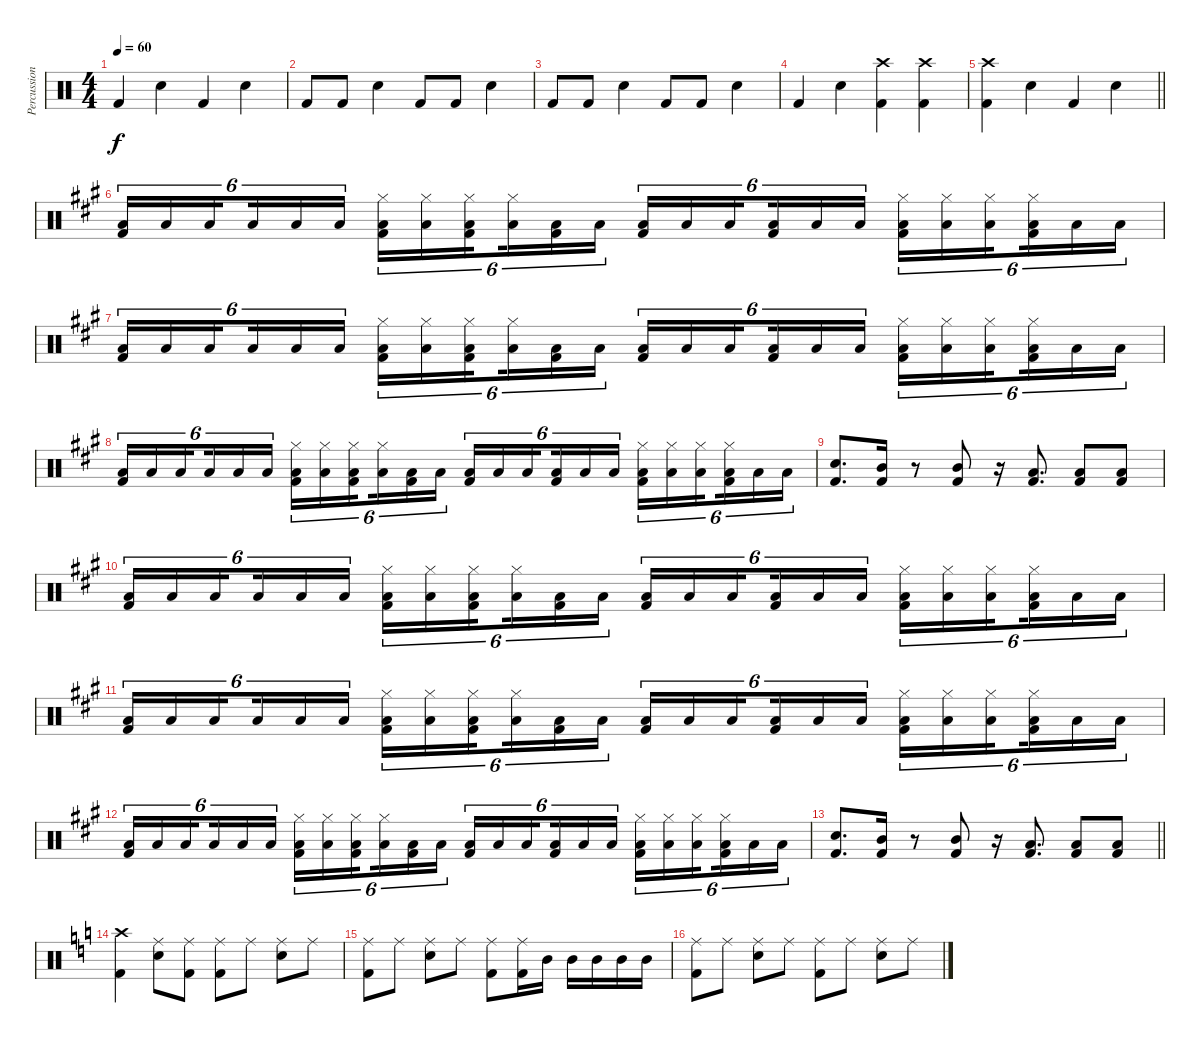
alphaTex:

\track ("Percussion" "Percussion") {instrument percussion}
\staff {score}
\articulation defaults
\ts (4 4)
\tempo 60
\clef neutral
\ks c "Kick (hit) 2".4{dy f} "Snare (hit) 2".4 "Kick (hit) 2".4 "Snare (hit) 2".4
|
"Kick (hit) 2".8 "Kick (hit) 2".8 "Snare (hit) 2".4 "Kick (hit) 2".8 "Kick (hit) 2".8 "Snare (hit) 2".4 |
"Kick (hit) 2".8 "Kick (hit) 2".8 "Snare (hit) 2".4 "Kick (hit) 2".8 "Kick (hit) 2".8 "Snare (hit) 2".4 |
"Kick (hit) 2".4 "Snare (hit) 2".4 ("Crash high (hit)" "Kick (hit) 2").4 ("Crash high (hit)" "Kick (hit) 2").4 |
\barLineRight lightlight
("Crash high (hit)" "Kick (hit) 2").4 "Snare (hit) 2".4 "Kick (hit) 2".4 "Snare (hit) 2".4 |
\ks a
("Low Tom (hit)" "Kick (hit) 2").16{tu (6 4)} "Low Tom (hit)".16{tu (6 4)} "Low Tom (hit)".16{tu (6 4) beam splitsecondary} "Low Tom (hit)".16{tu (6 4)} "Low Tom (hit)".16{tu (6 4)} "Low Tom (hit)".16{tu (6 4)} ("Hi-Hat (closed)" "Low Tom (hit)" "Kick (hit) 2").16{tu (6 4)} ("Hi-Hat (closed)" "Low Tom (hit)").16{tu (6 4)} ("Hi-Hat (closed)" "Low Tom (hit)" "Kick (hit) 2").16{tu (6 4) beam splitsecondary} ("Hi-Hat (closed)" "Low Tom (hit)").16{tu (6 4)} ("Low Tom (hit)" "Kick (hit) 2").16{tu (6 4)} "Low Tom (hit)".16{tu (6 4)} ("Low Tom (hit)" "Kick (hit) 2").16{tu (6 4)} "Low Tom (hit)".16{tu (6 4)} "Low Tom (hit)".16{tu (6 4) beam splitsecondary} ("Low Tom (hit)" "Kick (hit) 2").16{tu (6 4)} "Low Tom (hit)".16{tu (6 4)} "Low Tom (hit)".16{tu (6 4)} ("Hi-Hat (closed)" "Low Tom (hit)" "Kick (hit) 2").16{tu (6 4)} ("Hi-Hat (closed)" "Low Tom (hit)").16{tu (6 4)} ("Hi-Hat (closed)" "Low Tom (hit)").16{tu (6 4) beam splitsecondary} ("Hi-Hat (closed)" "Low Tom (hit)" "Kick (hit) 2").16{tu (6 4)} "Low Tom (hit)".16{tu (6 4)} "Low Tom (hit)".16{tu (6 4)} |
("Low Tom (hit)" "Kick (hit) 2").16{tu (6 4)} "Low Tom (hit)".16{tu (6 4)} "Low Tom (hit)".16{tu (6 4) beam splitsecondary} "Low Tom (hit)".16{tu (6 4)} "Low Tom (hit)".16{tu (6 4)} "Low Tom (hit)".16{tu (6 4)} ("Hi-Hat (closed)" "Low Tom (hit)" "Kick (hit) 2").16{tu (6 4)} ("Hi-Hat (closed)" "Low Tom (hit)").16{tu (6 4)} ("Hi-Hat (closed)" "Low Tom (hit)" "Kick (hit) 2").16{tu (6 4) beam splitsecondary} ("Hi-Hat (closed)" "Low Tom (hit)").16{tu (6 4)} ("Low Tom (hit)" "Kick (hit) 2").16{tu (6 4)} "Low Tom (hit)".16{tu (6 4)} ("Low Tom (hit)" "Kick (hit) 2").16{tu (6 4)} "Low Tom (hit)".16{tu (6 4)} "Low Tom (hit)".16{tu (6 4) beam splitsecondary} ("Low Tom (hit)" "Kick (hit) 2").16{tu (6 4)} "Low Tom (hit)".16{tu (6 4)} "Low Tom (hit)".16{tu (6 4)} ("Hi-Hat (closed)" "Low Tom (hit)" "Kick (hit) 2").16{tu (6 4)} ("Hi-Hat (closed)" "Low Tom (hit)").16{tu (6 4)} ("Hi-Hat (closed)" "Low Tom (hit)").16{tu (6 4) beam splitsecondary} ("Hi-Hat (closed)" "Low Tom (hit)" "Kick (hit) 2").16{tu (6 4)} "Low Tom (hit)".16{tu (6 4)} "Low Tom (hit)".16{tu (6 4)} |
("Low Tom (hit)" "Kick (hit) 2").16{tu (6 4)} "Low Tom (hit)".16{tu (6 4)} "Low Tom (hit)".16{tu (6 4) beam splitsecondary} "Low Tom (hit)".16{tu (6 4)} "Low Tom (hit)".16{tu (6 4)} "Low Tom (hit)".16{tu (6 4)} ("Hi-Hat (closed)" "Low Tom (hit)" "Kick (hit) 2").16{tu (6 4)} ("Hi-Hat (closed)" "Low Tom (hit)").16{tu (6 4)} ("Hi-Hat (closed)" "Low Tom (hit)" "Kick (hit) 2").16{tu (6 4) beam splitsecondary} ("Hi-Hat (closed)" "Low Tom (hit)").16{tu (6 4)} ("Low Tom (hit)" "Kick (hit) 2").16{tu (6 4)} "Low Tom (hit)".16{tu (6 4)} ("Low Tom (hit)" "Kick (hit) 2").16{tu (6 4)} "Low Tom (hit)".16{tu (6 4)} "Low Tom (hit)".16{tu (6 4) beam splitsecondary} ("Low Tom (hit)" "Kick (hit) 2").16{tu (6 4)} "Low Tom (hit)".16{tu (6 4)} "Low Tom (hit)".16{tu (6 4)} ("Hi-Hat (closed)" "Low Tom (hit)" "Kick (hit) 2").16{tu (6 4)} ("Hi-Hat (closed)" "Low Tom (hit)").16{tu (6 4)} ("Hi-Hat (closed)" "Low Tom (hit)").16{tu (6 4) beam splitsecondary} ("Hi-Hat (closed)" "Low Tom (hit)" "Kick (hit) 2").16{tu (6 4)} "Low Tom (hit)".16{tu (6 4)} "Low Tom (hit)".16{tu (6 4)} |
("Snare (hit) 2" "Kick (hit) 2").8{d} ("Mid Tom (hit)" "Kick (hit) 2").16 r.8 ("Mid Tom (hit)" "Kick (hit) 2").8 r.16 ("Low Floor Tom (hit)" "Kick (hit) 2").8{d} ("Low Floor Tom (hit)" "Kick (hit) 2").8 ("Low Floor Tom (hit)" "Kick (hit) 2").8 |
("Low Tom (hit)" "Kick (hit) 2").16{tu (6 4)} "Low Tom (hit)".16{tu (6 4)} "Low Tom (hit)".16{tu (6 4) beam splitsecondary} "Low Tom (hit)".16{tu (6 4)} "Low Tom (hit)".16{tu (6 4)} "Low Tom (hit)".16{tu (6 4)} ("Hi-Hat (closed)" "Low Tom (hit)" "Kick (hit) 2").16{tu (6 4)} ("Hi-Hat (closed)" "Low Tom (hit)").16{tu (6 4)} ("Hi-Hat (closed)" "Low Tom (hit)" "Kick (hit) 2").16{tu (6 4) beam splitsecondary} ("Hi-Hat (closed)" "Low Tom (hit)").16{tu (6 4)} ("Low Tom (hit)" "Kick (hit) 2").16{tu (6 4)} "Low Tom (hit)".16{tu (6 4)} ("Low Tom (hit)" "Kick (hit) 2").16{tu (6 4)} "Low Tom (hit)".16{tu (6 4)} "Low Tom (hit)".16{tu (6 4) beam splitsecondary} ("Low Tom (hit)" "Kick (hit) 2").16{tu (6 4)} "Low Tom (hit)".16{tu (6 4)} "Low Tom (hit)".16{tu (6 4)} ("Hi-Hat (closed)" "Low Tom (hit)" "Kick (hit) 2").16{tu (6 4)} ("Hi-Hat (closed)" "Low Tom (hit)").16{tu (6 4)} ("Hi-Hat (closed)" "Low Tom (hit)").16{tu (6 4) beam splitsecondary} ("Hi-Hat (closed)" "Low Tom (hit)" "Kick (hit) 2").16{tu (6 4)} "Low Tom (hit)".16{tu (6 4)} "Low Tom (hit)".16{tu (6 4)} |
("Low Tom (hit)" "Kick (hit) 2").16{tu (6 4)} "Low Tom (hit)".16{tu (6 4)} "Low Tom (hit)".16{tu (6 4) beam splitsecondary} "Low Tom (hit)".16{tu (6 4)} "Low Tom (hit)".16{tu (6 4)} "Low Tom (hit)".16{tu (6 4)} ("Hi-Hat (closed)" "Low Tom (hit)" "Kick (hit) 2").16{tu (6 4)} ("Hi-Hat (closed)" "Low Tom (hit)").16{tu (6 4)} ("Hi-Hat (closed)" "Low Tom (hit)" "Kick (hit) 2").16{tu (6 4) beam splitsecondary} ("Hi-Hat (closed)" "Low Tom (hit)").16{tu (6 4)} ("Low Tom (hit)" "Kick (hit) 2").16{tu (6 4)} "Low Tom (hit)".16{tu (6 4)} ("Low Tom (hit)" "Kick (hit) 2").16{tu (6 4)} "Low Tom (hit)".16{tu (6 4)} "Low Tom (hit)".16{tu (6 4) beam splitsecondary} ("Low Tom (hit)" "Kick (hit) 2").16{tu (6 4)} "Low Tom (hit)".16{tu (6 4)} "Low Tom (hit)".16{tu (6 4)} ("Hi-Hat (closed)" "Low Tom (hit)" "Kick (hit) 2").16{tu (6 4)} ("Hi-Hat (closed)" "Low Tom (hit)").16{tu (6 4)} ("Hi-Hat (closed)" "Low Tom (hit)").16{tu (6 4) beam splitsecondary} ("Hi-Hat (closed)" "Low Tom (hit)" "Kick (hit) 2").16{tu (6 4)} "Low Tom (hit)".16{tu (6 4)} "Low Tom (hit)".16{tu (6 4)} |
("Low Tom (hit)" "Kick (hit) 2").16{tu (6 4)} "Low Tom (hit)".16{tu (6 4)} "Low Tom (hit)".16{tu (6 4) beam splitsecondary} "Low Tom (hit)".16{tu (6 4)} "Low Tom (hit)".16{tu (6 4)} "Low Tom (hit)".16{tu (6 4)} ("Hi-Hat (closed)" "Low Tom (hit)" "Kick (hit) 2").16{tu (6 4)} ("Hi-Hat (closed)" "Low Tom (hit)").16{tu (6 4)} ("Hi-Hat (closed)" "Low Tom (hit)" "Kick (hit) 2").16{tu (6 4) beam splitsecondary} ("Hi-Hat (closed)" "Low Tom (hit)").16{tu (6 4)} ("Low Tom (hit)" "Kick (hit) 2").16{tu (6 4)} "Low Tom (hit)".16{tu (6 4)} ("Low Tom (hit)" "Kick (hit) 2").16{tu (6 4)} "Low Tom (hit)".16{tu (6 4)} "Low Tom (hit)".16{tu (6 4) beam splitsecondary} ("Low Tom (hit)" "Kick (hit) 2").16{tu (6 4)} "Low Tom (hit)".16{tu (6 4)} "Low Tom (hit)".16{tu (6 4)} ("Hi-Hat (closed)" "Low Tom (hit)" "Kick (hit) 2").16{tu (6 4)} ("Hi-Hat (closed)" "Low Tom (hit)").16{tu (6 4)} ("Hi-Hat (closed)" "Low Tom (hit)").16{tu (6 4) beam splitsecondary} ("Hi-Hat (closed)" "Low Tom (hit)" "Kick (hit) 2").16{tu (6 4)} "Low Tom (hit)".16{tu (6 4)} "Low Tom (hit)".16{tu (6 4)} |
\barLineRight lightlight
("Snare (hit) 2" "Kick (hit) 2").8{d} ("Mid Tom (hit)" "Kick (hit) 2").16 r.8 ("Mid Tom (hit)" "Kick (hit) 2").8 r.16 ("Low Floor Tom (hit)" "Kick (hit) 2").8{d} ("Low Floor Tom (hit)" "Kick (hit) 2").8 ("Low Floor Tom (hit)" "Kick (hit) 2").8 |
\ks c
("Crash high (hit)" "Kick (hit) 2").4 ("Ride (middle)" "Snare (hit) 2").8 ("Ride (middle)" "Kick (hit) 2").8 ("Ride (middle)" "Kick (hit) 2").8 "Ride (middle)".8 ("Ride (middle)" "Snare (hit) 2").8 "Ride (middle)".8 |
("Ride (middle)" "Kick (hit) 2").8 "Ride (middle)".8 ("Ride (middle)" "Snare (hit) 2").8 "Ride (middle)".8 ("Ride (middle)" "Kick (hit) 2").8 ("Ride (middle)" "Kick (hit) 2").16 "Mid Tom (hit)".16 "Mid Tom (hit)".16 "Mid Tom (hit)".16 "Mid Tom (hit)".16 "Mid Tom (hit)".16 |
("Ride (middle)" "Kick (hit) 2").8 "Ride (middle)".8 ("Ride (middle)" "Snare (hit) 2").8 "Ride (middle)".8 ("Ride (middle)" "Kick (hit) 2").8 "Ride (middle)".8 ("Ride (middle)" "Snare (hit) 2").8 "Ride (middle)".8
